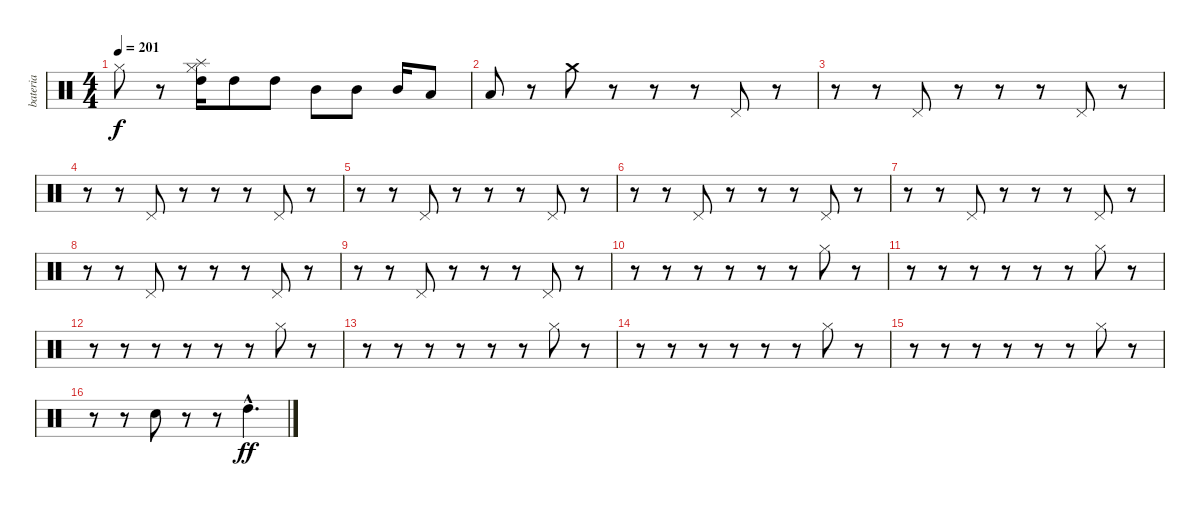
\track ("bateria" "bateria") {instrument percussion}
\staff {score}
\articulation defaults
\ts (4 4)
\tempo 201
\clef neutral
\ks c "Hi-Hat (closed)".8{dy f}
r.8 ("High Tom (hit)" "Splash (hit)" "Hi-Hat (closed)").16 "High Tom (hit)".8 "High Tom (hit)".8 "Mid Tom (hit)".8 "Mid Tom (hit)".8 "Mid Tom (hit)".16 "Low Tom (hit)".8 |
"Low Tom (hit)".8 r.8 "Crash medium (hit)".8 r.8 r.8 r.8 "Pedal Hi-Hat (hit)".8 r.8 |
r.8 r.8 "Pedal Hi-Hat (hit)".8 r.8 r.8 r.8 "Pedal Hi-Hat (hit)".8 r.8 |
r.8 r.8 "Pedal Hi-Hat (hit)".8 r.8 r.8 r.8 "Pedal Hi-Hat (hit)".8 r.8 |
r.8 r.8 "Pedal Hi-Hat (hit)".8 r.8 r.8 r.8 "Pedal Hi-Hat (hit)".8 r.8 |
r.8 r.8 "Pedal Hi-Hat (hit)".8 r.8 r.8 r.8 "Pedal Hi-Hat (hit)".8 r.8 |
r.8 r.8 "Pedal Hi-Hat (hit)".8 r.8 r.8 r.8 "Pedal Hi-Hat (hit)".8 r.8 |
r.8 r.8 "Pedal Hi-Hat (hit)".8 r.8 r.8 r.8 "Pedal Hi-Hat (hit)".8 r.8 |
r.8 r.8 "Pedal Hi-Hat (hit)".8 r.8 r.8 r.8 "Pedal Hi-Hat (hit)".8 r.8 |
r.8 r.8 r.8 r.8 r.8 r.8 "Hi-Hat (closed)".8 r.8 |
r.8 r.8 r.8 r.8 r.8 r.8 "Hi-Hat (closed)".8 r.8 |
r.8 r.8 r.8 r.8 r.8 r.8 "Hi-Hat (closed)".8 r.8 |
r.8 r.8 r.8 r.8 r.8 r.8 "Hi-Hat (closed)".8 r.8 |
r.8 r.8 r.8 r.8 r.8 r.8 "Hi-Hat (closed)".8 r.8 |
r.8 r.8 r.8 r.8 r.8 r.8 "Hi-Hat (closed)".8 r.8 |
r.8 r.8 "Snare (hit) 2".8 r.8 r.8 "High Tom (hit)"{hac}.4{d dy ff}
